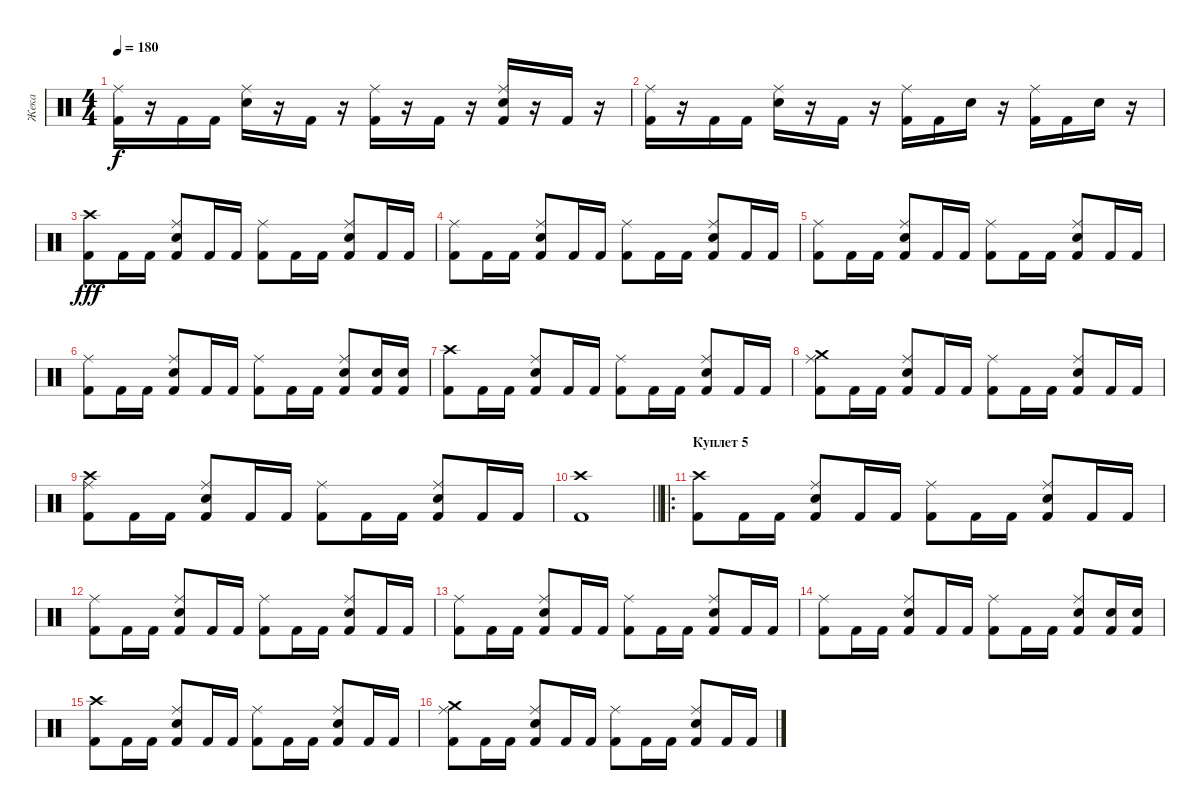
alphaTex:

\track ("Жека" "Жека") {instrument percussion}
\staff {score}
\articulation defaults
\ts (4 4)
\tempo 180
\clef neutral
\ks c
("Kick (hit) 2" "Ride (middle)").16{dy f} r.16 "Kick (hit) 2".16 "Kick (hit) 2".16 ("Ride (middle)" "Snare (hit) 2").16 r.16 "Kick (hit) 2".16 r.16 ("Kick (hit) 2" "Ride (middle)").16 r.16 "Kick (hit) 2".16 r.16 ("Kick (hit) 2" "Ride (middle)" "Snare (hit) 2").16 r.16 "Kick (hit) 2".16 r.16 |
("Kick (hit) 2" "Ride (middle)").16 r.16 "Kick (hit) 2".16 "Kick (hit) 2".16 ("Ride (middle)" "Snare (hit) 2").16 r.16 "Kick (hit) 2".16 r.16 ("Kick (hit) 2" "Ride (middle)").16 "Kick (hit) 2".16 "Snare (hit) 2".16 r.16 ("Kick (hit) 2" "Ride (middle)").16 "Kick (hit) 2".16 "Snare (hit) 2".16 r.16 |
("Kick (hit) 2" "Crash high (hit)").8{dy fff} "Kick (hit) 2".16 "Kick (hit) 2".16 ("Ride (middle)" "Kick (hit) 2" "Snare (hit) 2").8 "Kick (hit) 2".16 "Kick (hit) 2".16 ("Ride (middle)" "Kick (hit) 2").8 "Kick (hit) 2".16 "Kick (hit) 2".16 ("Ride (middle)" "Kick (hit) 2" "Snare (hit) 2").8 "Kick (hit) 2".16 "Kick (hit) 2".16 |
("Ride (middle)" "Kick (hit) 2").8 "Kick (hit) 2".16 "Kick (hit) 2".16 ("Ride (middle)" "Kick (hit) 2" "Snare (hit) 2").8 "Kick (hit) 2".16 "Kick (hit) 2".16 ("Ride (middle)" "Kick (hit) 2").8 "Kick (hit) 2".16 "Kick (hit) 2".16 ("Ride (middle)" "Kick (hit) 2" "Snare (hit) 2").8 "Kick (hit) 2".16 "Kick (hit) 2".16 |
("Ride (middle)" "Kick (hit) 2").8 "Kick (hit) 2".16 "Kick (hit) 2".16 ("Ride (middle)" "Kick (hit) 2" "Snare (hit) 2").8 "Kick (hit) 2".16 "Kick (hit) 2".16 ("Ride (middle)" "Kick (hit) 2").8 "Kick (hit) 2".16 "Kick (hit) 2".16 ("Ride (middle)" "Kick (hit) 2" "Snare (hit) 2").8 "Kick (hit) 2".16 "Kick (hit) 2".16 |
("Ride (middle)" "Kick (hit) 2").8 "Kick (hit) 2".16 "Kick (hit) 2".16 ("Ride (middle)" "Kick (hit) 2" "Snare (hit) 2").8 "Kick (hit) 2".16 "Kick (hit) 2".16 ("Ride (middle)" "Kick (hit) 2").8 "Kick (hit) 2".16 "Kick (hit) 2".16 ("Ride (middle)" "Kick (hit) 2" "Snare (hit) 2").8 ("Kick (hit) 2" "Snare (hit) 2").16 ("Kick (hit) 2" "Snare (hit) 2").16 |
("Kick (hit) 2" "Crash high (hit)").8 "Kick (hit) 2".16 "Kick (hit) 2".16 ("Ride (middle)" "Kick (hit) 2" "Snare (hit) 2").8 "Kick (hit) 2".16 "Kick (hit) 2".16 ("Ride (middle)" "Kick (hit) 2").8 "Kick (hit) 2".16 "Kick (hit) 2".16 ("Ride (middle)" "Kick (hit) 2" "Snare (hit) 2").8 "Kick (hit) 2".16 "Kick (hit) 2".16 |
("Ride (middle)" "Kick (hit) 2" "Crash medium (hit)").8 "Kick (hit) 2".16 "Kick (hit) 2".16 ("Ride (middle)" "Kick (hit) 2" "Snare (hit) 2").8 "Kick (hit) 2".16 "Kick (hit) 2".16 ("Ride (middle)" "Kick (hit) 2").8 "Kick (hit) 2".16 "Kick (hit) 2".16 ("Ride (middle)" "Kick (hit) 2" "Snare (hit) 2").8 "Kick (hit) 2".16 "Kick (hit) 2".16 |
("Ride (middle)" "Kick (hit) 2" "Crash high (hit)").8 "Kick (hit) 2".16 "Kick (hit) 2".16 ("Ride (middle)" "Kick (hit) 2" "Snare (hit) 2").8 "Kick (hit) 2".16 "Kick (hit) 2".16 ("Ride (middle)" "Kick (hit) 2").8 "Kick (hit) 2".16 "Kick (hit) 2".16 ("Ride (middle)" "Kick (hit) 2" "Snare (hit) 2").8 "Kick (hit) 2".16 "Kick (hit) 2".16 |
\barLineRight lightlight
("Kick (hit) 2" "Crash high (hit)").1 |
\ro
\section ("" "Куплет 5")
("Kick (hit) 2" "Crash high (hit)").8 "Kick (hit) 2".16 "Kick (hit) 2".16 ("Ride (middle)" "Kick (hit) 2" "Snare (hit) 2").8 "Kick (hit) 2".16 "Kick (hit) 2".16 ("Ride (middle)" "Kick (hit) 2").8 "Kick (hit) 2".16 "Kick (hit) 2".16 ("Ride (middle)" "Kick (hit) 2" "Snare (hit) 2").8 "Kick (hit) 2".16 "Kick (hit) 2".16 |
("Ride (middle)" "Kick (hit) 2").8 "Kick (hit) 2".16 "Kick (hit) 2".16 ("Ride (middle)" "Kick (hit) 2" "Snare (hit) 2").8 "Kick (hit) 2".16 "Kick (hit) 2".16 ("Ride (middle)" "Kick (hit) 2").8 "Kick (hit) 2".16 "Kick (hit) 2".16 ("Ride (middle)" "Kick (hit) 2" "Snare (hit) 2").8 "Kick (hit) 2".16 "Kick (hit) 2".16 |
("Ride (middle)" "Kick (hit) 2").8 "Kick (hit) 2".16 "Kick (hit) 2".16 ("Ride (middle)" "Kick (hit) 2" "Snare (hit) 2").8 "Kick (hit) 2".16 "Kick (hit) 2".16 ("Ride (middle)" "Kick (hit) 2").8 "Kick (hit) 2".16 "Kick (hit) 2".16 ("Ride (middle)" "Kick (hit) 2" "Snare (hit) 2").8 "Kick (hit) 2".16 "Kick (hit) 2".16 |
("Ride (middle)" "Kick (hit) 2").8 "Kick (hit) 2".16 "Kick (hit) 2".16 ("Ride (middle)" "Kick (hit) 2" "Snare (hit) 2").8 "Kick (hit) 2".16 "Kick (hit) 2".16 ("Ride (middle)" "Kick (hit) 2").8 "Kick (hit) 2".16 "Kick (hit) 2".16 ("Ride (middle)" "Kick (hit) 2" "Snare (hit) 2").8 ("Kick (hit) 2" "Snare (hit) 2").16 ("Kick (hit) 2" "Snare (hit) 2").16 |
("Kick (hit) 2" "Crash high (hit)").8 "Kick (hit) 2".16 "Kick (hit) 2".16 ("Ride (middle)" "Kick (hit) 2" "Snare (hit) 2").8 "Kick (hit) 2".16 "Kick (hit) 2".16 ("Ride (middle)" "Kick (hit) 2").8 "Kick (hit) 2".16 "Kick (hit) 2".16 ("Ride (middle)" "Kick (hit) 2" "Snare (hit) 2").8 "Kick (hit) 2".16 "Kick (hit) 2".16 |
("Ride (middle)" "Kick (hit) 2" "Crash medium (hit)").8 "Kick (hit) 2".16 "Kick (hit) 2".16 ("Ride (middle)" "Kick (hit) 2" "Snare (hit) 2").8 "Kick (hit) 2".16 "Kick (hit) 2".16 ("Ride (middle)" "Kick (hit) 2").8 "Kick (hit) 2".16 "Kick (hit) 2".16 ("Ride (middle)" "Kick (hit) 2" "Snare (hit) 2").8 "Kick (hit) 2".16 "Kick (hit) 2".16
